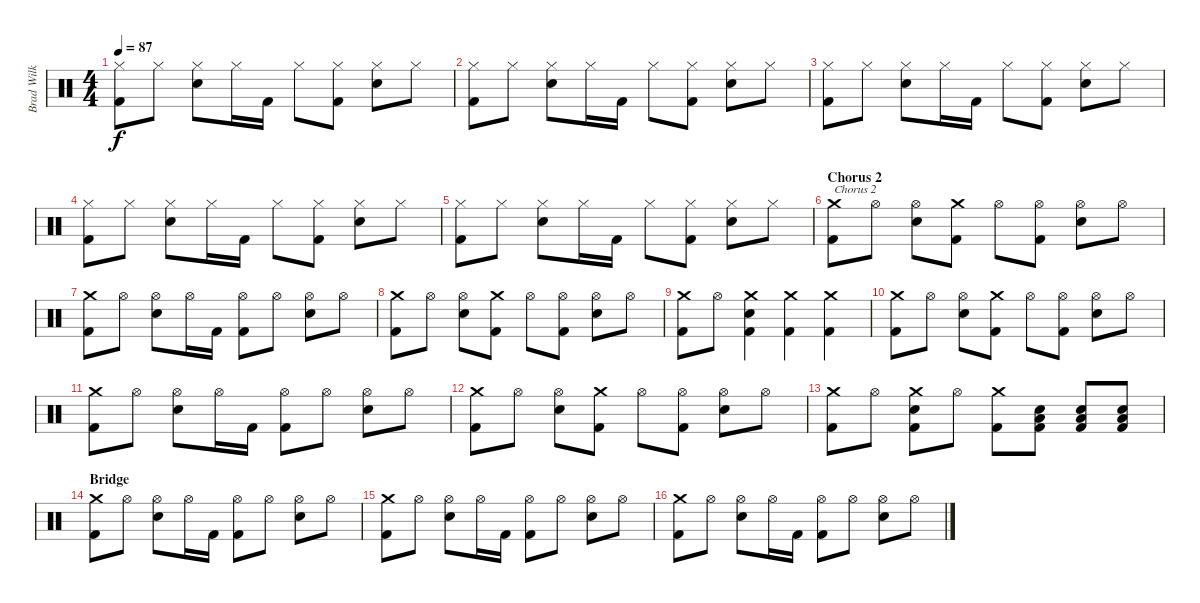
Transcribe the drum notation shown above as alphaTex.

\track ("Brad Wilk" "Brad Wilk") {instrument percussion}
\staff {score}
\articulation defaults
\ts (4 4)
\tempo 87
\clef neutral
\ks c
("Hi-Hat (closed)" "Kick (hit) 2").8{dy f} "Hi-Hat (closed)".8 ("Hi-Hat (closed)" "Electric Snare (hit)").8 "Hi-Hat (closed)".16 "Kick (hit) 2".16 "Hi-Hat (closed)".8 ("Hi-Hat (closed)" "Kick (hit) 2").8 ("Hi-Hat (closed)" "Electric Snare (hit)").8 "Hi-Hat (closed)".8 |
("Hi-Hat (closed)" "Kick (hit) 2").8 "Hi-Hat (closed)".8 ("Hi-Hat (closed)" "Electric Snare (hit)").8 "Hi-Hat (closed)".16 "Kick (hit) 2".16 "Hi-Hat (closed)".8 ("Hi-Hat (closed)" "Kick (hit) 2").8 ("Hi-Hat (closed)" "Electric Snare (hit)").8 "Hi-Hat (closed)".8 |
("Hi-Hat (closed)" "Kick (hit) 2").8 "Hi-Hat (closed)".8 ("Hi-Hat (closed)" "Electric Snare (hit)").8 "Hi-Hat (closed)".16 "Kick (hit) 2".16 "Hi-Hat (closed)".8 ("Hi-Hat (closed)" "Kick (hit) 2").8 ("Hi-Hat (closed)" "Electric Snare (hit)").8 "Hi-Hat (closed)".8 |
("Hi-Hat (closed)" "Kick (hit) 2").8 "Hi-Hat (closed)".8 ("Hi-Hat (closed)" "Electric Snare (hit)").8 "Hi-Hat (closed)".16 "Kick (hit) 2".16 "Hi-Hat (closed)".8 ("Hi-Hat (closed)" "Kick (hit) 2").8 ("Hi-Hat (closed)" "Electric Snare (hit)").8 "Hi-Hat (closed)".8 |
("Hi-Hat (closed)" "Kick (hit) 2").8 "Hi-Hat (closed)".8 ("Hi-Hat (closed)" "Electric Snare (hit)").8 "Hi-Hat (closed)".16 "Kick (hit) 2".16 "Hi-Hat (closed)".8 ("Hi-Hat (closed)" "Kick (hit) 2").8 ("Hi-Hat (closed)" "Electric Snare (hit)").8 "Hi-Hat (closed)".8 |
\section ("" "Chorus 2")
("Crash medium (hit)" "Kick (hit) 2").8{txt "Chorus 2"} "Hi-Hat (open)".8 ("Hi-Hat (open)" "Electric Snare (hit)").8 ("Crash medium (hit)" "Kick (hit) 2").8 "Hi-Hat (open)".8 ("Hi-Hat (open)" "Kick (hit) 2").8 ("Hi-Hat (open)" "Electric Snare (hit)").8 "Hi-Hat (open)".8 |
("Crash medium (hit)" "Kick (hit) 2").8 "Hi-Hat (open)".8 ("Hi-Hat (open)" "Electric Snare (hit)").8 "Hi-Hat (open)".16 "Kick (hit) 2".16 ("Hi-Hat (open)" "Kick (hit) 2").8 "Hi-Hat (open)".8 ("Hi-Hat (open)" "Electric Snare (hit)").8 "Hi-Hat (open)".8 |
("Crash medium (hit)" "Kick (hit) 2").8 "Hi-Hat (open)".8 ("Hi-Hat (open)" "Electric Snare (hit)").8 ("Crash medium (hit)" "Kick (hit) 2").8 "Hi-Hat (open)".8 ("Hi-Hat (open)" "Kick (hit) 2").8 ("Hi-Hat (open)" "Electric Snare (hit)").8 "Hi-Hat (open)".8 |
("Crash medium (hit)" "Kick (hit) 2").8 "Hi-Hat (open)".8 ("Crash medium (hit)" "Electric Snare (hit)" "Kick (hit) 2").4 ("Crash medium (hit)" "Kick (hit) 2").4 ("Crash medium (hit)" "Kick (hit) 2").4 |
("Crash medium (hit)" "Kick (hit) 2").8 "Hi-Hat (open)".8 ("Hi-Hat (open)" "Electric Snare (hit)").8 ("Crash medium (hit)" "Kick (hit) 2").8 "Hi-Hat (open)".8 ("Hi-Hat (open)" "Kick (hit) 2").8 ("Hi-Hat (open)" "Electric Snare (hit)").8 "Hi-Hat (open)".8 |
("Crash medium (hit)" "Kick (hit) 2").8 "Hi-Hat (open)".8 ("Hi-Hat (open)" "Electric Snare (hit)").8 "Hi-Hat (open)".16 "Kick (hit) 2".16 ("Hi-Hat (open)" "Kick (hit) 2").8 "Hi-Hat (open)".8 ("Hi-Hat (open)" "Electric Snare (hit)").8 "Hi-Hat (open)".8 |
("Crash medium (hit)" "Kick (hit) 2").8 "Hi-Hat (open)".8 ("Hi-Hat (open)" "Electric Snare (hit)").8 ("Crash medium (hit)" "Kick (hit) 2").8 "Hi-Hat (open)".8 ("Hi-Hat (open)" "Kick (hit) 2").8 ("Hi-Hat (open)" "Electric Snare (hit)").8 "Hi-Hat (open)".8 |
("Crash medium (hit)" "Kick (hit) 2").8 "Hi-Hat (open)".8 ("Crash medium (hit)" "Electric Snare (hit)" "Kick (hit) 2").8 "Hi-Hat (open)".8 ("Crash medium (hit)" "Kick (hit) 2").8 ("Electric Snare (hit)" "Low Tom (hit)" "Kick (hit) 2").8 ("Electric Snare (hit)" "Low Tom (hit)" "Kick (hit) 2").8 ("Electric Snare (hit)" "Low Tom (hit)" "Kick (hit) 2").8 |
\section ("" "Bridge")
("Crash medium (hit)" "Kick (hit) 2").8 "Hi-Hat (open)".8 ("Hi-Hat (open)" "Electric Snare (hit)").8 "Hi-Hat (open)".16 "Kick (hit) 2".16 ("Hi-Hat (open)" "Kick (hit) 2").8 "Hi-Hat (open)".8 ("Hi-Hat (open)" "Electric Snare (hit)").8 "Hi-Hat (open)".8 |
("Crash medium (hit)" "Kick (hit) 2").8 "Hi-Hat (open)".8 ("Hi-Hat (open)" "Electric Snare (hit)").8 "Hi-Hat (open)".16 "Kick (hit) 2".16 ("Hi-Hat (open)" "Kick (hit) 2").8 "Hi-Hat (open)".8 ("Hi-Hat (open)" "Electric Snare (hit)").8 "Hi-Hat (open)".8 |
("Crash medium (hit)" "Kick (hit) 2").8 "Hi-Hat (open)".8 ("Hi-Hat (open)" "Electric Snare (hit)").8 "Hi-Hat (open)".16 "Kick (hit) 2".16 ("Hi-Hat (open)" "Kick (hit) 2").8 "Hi-Hat (open)".8 ("Hi-Hat (open)" "Electric Snare (hit)").8 "Hi-Hat (open)".8
